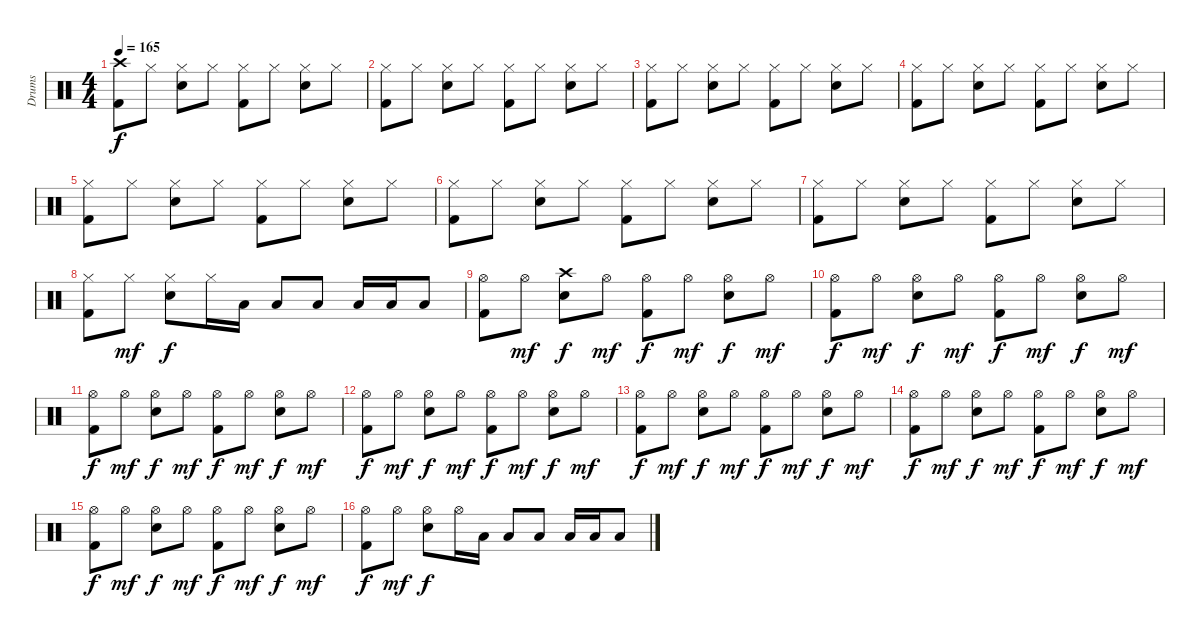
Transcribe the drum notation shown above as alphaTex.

\track ("Drums" "Drums") {instrument percussion}
\staff {score}
\articulation defaults
\ts (4 4)
\tempo 165
\clef neutral
\ks c
("Crash high (hit)" "Kick (hit) 2").8{dy f} "Hi-Hat (closed)".8 ("Hi-Hat (closed)" "Electric Snare (hit)").8 "Hi-Hat (closed)".8 ("Hi-Hat (closed)" "Kick (hit) 2").8 "Hi-Hat (closed)".8 ("Hi-Hat (closed)" "Electric Snare (hit)").8 "Hi-Hat (closed)".8 |
("Hi-Hat (closed)" "Kick (hit) 2").8 "Hi-Hat (closed)".8 ("Hi-Hat (closed)" "Electric Snare (hit)").8 "Hi-Hat (closed)".8 ("Hi-Hat (closed)" "Kick (hit) 2").8 "Hi-Hat (closed)".8 ("Hi-Hat (closed)" "Electric Snare (hit)").8 "Hi-Hat (closed)".8 |
("Hi-Hat (closed)" "Kick (hit) 2").8 "Hi-Hat (closed)".8 ("Hi-Hat (closed)" "Electric Snare (hit)").8 "Hi-Hat (closed)".8 ("Hi-Hat (closed)" "Kick (hit) 2").8 "Hi-Hat (closed)".8 ("Hi-Hat (closed)" "Electric Snare (hit)").8 "Hi-Hat (closed)".8 |
("Hi-Hat (closed)" "Kick (hit) 2").8 "Hi-Hat (closed)".8 ("Hi-Hat (closed)" "Electric Snare (hit)").8 "Hi-Hat (closed)".8 ("Hi-Hat (closed)" "Kick (hit) 2").8 "Hi-Hat (closed)".8 ("Hi-Hat (closed)" "Electric Snare (hit)").8 "Hi-Hat (closed)".8 |
("Hi-Hat (closed)" "Kick (hit) 2").8 "Hi-Hat (closed)".8 ("Hi-Hat (closed)" "Electric Snare (hit)").8 "Hi-Hat (closed)".8 ("Hi-Hat (closed)" "Kick (hit) 2").8 "Hi-Hat (closed)".8 ("Hi-Hat (closed)" "Electric Snare (hit)").8 "Hi-Hat (closed)".8 |
("Hi-Hat (closed)" "Kick (hit) 2").8 "Hi-Hat (closed)".8 ("Hi-Hat (closed)" "Electric Snare (hit)").8 "Hi-Hat (closed)".8 ("Hi-Hat (closed)" "Kick (hit) 2").8 "Hi-Hat (closed)".8 ("Hi-Hat (closed)" "Electric Snare (hit)").8 "Hi-Hat (closed)".8 |
("Hi-Hat (closed)" "Kick (hit) 2").8 "Hi-Hat (closed)".8 ("Hi-Hat (closed)" "Electric Snare (hit)").8 "Hi-Hat (closed)".8 ("Hi-Hat (closed)" "Kick (hit) 2").8 "Hi-Hat (closed)".8 ("Hi-Hat (closed)" "Electric Snare (hit)").8 "Hi-Hat (closed)".8 |
("Hi-Hat (closed)" "Kick (hit) 2").8 "Hi-Hat (closed)".8{dy mf} ("Hi-Hat (closed)" "Electric Snare (hit)").8{dy f} "Hi-Hat (closed)".16 "Low Floor Tom (hit)".16 "Low Floor Tom (hit)".8 "Low Floor Tom (hit)".8 "Low Floor Tom (hit)".16 "Low Floor Tom (hit)".16 "Low Floor Tom (hit)".8 |
("Hi-Hat (open)" "Kick (hit) 2").8 "Hi-Hat (open)".8{dy mf} ("Crash high (hit)" "Electric Snare (hit)").8{dy f} "Hi-Hat (open)".8{dy mf} ("Hi-Hat (open)" "Kick (hit) 2").8{dy f} "Hi-Hat (open)".8{dy mf} ("Hi-Hat (open)" "Electric Snare (hit)").8{dy f} "Hi-Hat (open)".8{dy mf} |
("Hi-Hat (open)" "Kick (hit) 2").8{dy f} "Hi-Hat (open)".8{dy mf} ("Hi-Hat (open)" "Electric Snare (hit)").8{dy f} "Hi-Hat (open)".8{dy mf} ("Hi-Hat (open)" "Kick (hit) 2").8{dy f} "Hi-Hat (open)".8{dy mf} ("Hi-Hat (open)" "Electric Snare (hit)").8{dy f} "Hi-Hat (open)".8{dy mf} |
("Hi-Hat (open)" "Kick (hit) 2").8{dy f} "Hi-Hat (open)".8{dy mf} ("Hi-Hat (open)" "Electric Snare (hit)").8{dy f} "Hi-Hat (open)".8{dy mf} ("Hi-Hat (open)" "Kick (hit) 2").8{dy f} "Hi-Hat (open)".8{dy mf} ("Hi-Hat (open)" "Electric Snare (hit)").8{dy f} "Hi-Hat (open)".8{dy mf} |
("Hi-Hat (open)" "Kick (hit) 2").8{dy f} "Hi-Hat (open)".8{dy mf} ("Hi-Hat (open)" "Electric Snare (hit)").8{dy f} "Hi-Hat (open)".8{dy mf} ("Hi-Hat (open)" "Kick (hit) 2").8{dy f} "Hi-Hat (open)".8{dy mf} ("Hi-Hat (open)" "Electric Snare (hit)").8{dy f} "Hi-Hat (open)".8{dy mf} |
("Hi-Hat (open)" "Kick (hit) 2").8{dy f} "Hi-Hat (open)".8{dy mf} ("Hi-Hat (open)" "Electric Snare (hit)").8{dy f} "Hi-Hat (open)".8{dy mf} ("Hi-Hat (open)" "Kick (hit) 2").8{dy f} "Hi-Hat (open)".8{dy mf} ("Hi-Hat (open)" "Electric Snare (hit)").8{dy f} "Hi-Hat (open)".8{dy mf} |
("Hi-Hat (open)" "Kick (hit) 2").8{dy f} "Hi-Hat (open)".8{dy mf} ("Hi-Hat (open)" "Electric Snare (hit)").8{dy f} "Hi-Hat (open)".8{dy mf} ("Hi-Hat (open)" "Kick (hit) 2").8{dy f} "Hi-Hat (open)".8{dy mf} ("Hi-Hat (open)" "Electric Snare (hit)").8{dy f} "Hi-Hat (open)".8{dy mf} |
("Hi-Hat (open)" "Kick (hit) 2").8{dy f} "Hi-Hat (open)".8{dy mf} ("Hi-Hat (open)" "Electric Snare (hit)").8{dy f} "Hi-Hat (open)".8{dy mf} ("Hi-Hat (open)" "Kick (hit) 2").8{dy f} "Hi-Hat (open)".8{dy mf} ("Hi-Hat (open)" "Electric Snare (hit)").8{dy f} "Hi-Hat (open)".8{dy mf} |
("Hi-Hat (open)" "Kick (hit) 2").8{dy f} "Hi-Hat (open)".8{dy mf} ("Hi-Hat (open)" "Electric Snare (hit)").8{dy f} "Hi-Hat (open)".16 "Low Floor Tom (hit)".16 "Low Floor Tom (hit)".8 "Low Floor Tom (hit)".8 "Low Floor Tom (hit)".16 "Low Floor Tom (hit)".16 "Low Floor Tom (hit)".8
